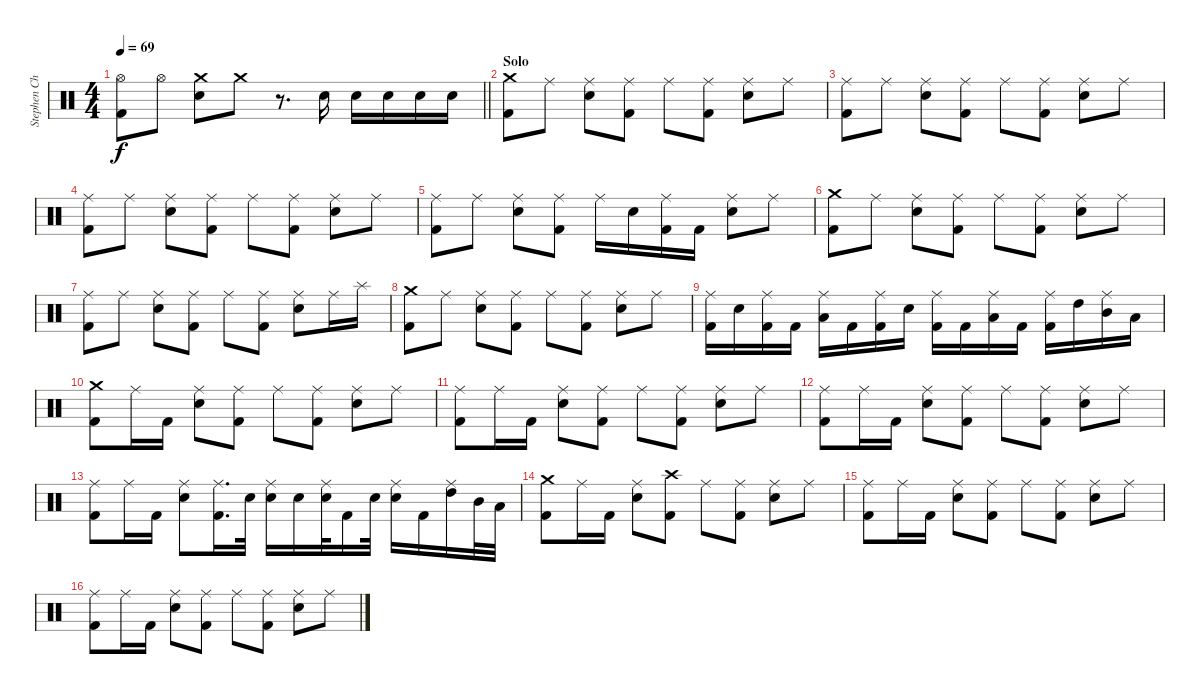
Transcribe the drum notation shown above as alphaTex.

\track ("Stephen Chopek" "Stephen Ch") {instrument percussion}
\staff {score}
\articulation defaults
\ts (4 4)
\tempo 69
\clef neutral
\barLineRight lightlight
\ks c
("Hi-Hat (open)" "Kick (hit) 2").8{dy f} "Hi-Hat (open)".8 ("Crash medium (hit)" "Snare (hit) 2").8 "Crash medium (hit)".8 r.8{d} "Snare (hit) 2".16 "Snare (hit) 2".16 "Snare (hit) 2".16 "Snare (hit) 2".16 "Snare (hit) 2".16 |
\section ("" "Solo")
("Crash medium (hit)" "Kick (hit) 2").8{volume 11} "Ride (middle)".8 ("Ride (middle)" "Snare (hit) 2").8 ("Ride (middle)" "Kick (hit) 2").8 "Ride (middle)".8 ("Ride (middle)" "Kick (hit) 2").8 ("Ride (middle)" "Snare (hit) 2").8 "Ride (middle)".8 |
("Ride (middle)" "Kick (hit) 2").8 "Ride (middle)".8 ("Ride (middle)" "Snare (hit) 2").8 ("Ride (middle)" "Kick (hit) 2").8 "Ride (middle)".8 ("Ride (middle)" "Kick (hit) 2").8 ("Ride (middle)" "Snare (hit) 2").8 "Ride (middle)".8 |
("Ride (middle)" "Kick (hit) 2").8 "Ride (middle)".8 ("Ride (middle)" "Snare (hit) 2").8 ("Ride (middle)" "Kick (hit) 2").8 "Ride (middle)".8 ("Ride (middle)" "Kick (hit) 2").8 ("Ride (middle)" "Snare (hit) 2").8 "Ride (middle)".8 |
("Ride (middle)" "Kick (hit) 2").8 "Ride (middle)".8 ("Ride (middle)" "Snare (hit) 2").8 ("Ride (middle)" "Kick (hit) 2").8 "Ride (middle)".16 "Snare (hit) 2".16 ("Ride (middle)" "Kick (hit) 2").16 "Kick (hit) 2".16 ("Ride (middle)" "Snare (hit) 2").8 "Ride (middle)".8 |
("Crash medium (hit)" "Kick (hit) 2").8 "Ride (middle)".8 ("Ride (middle)" "Snare (hit) 2").8 ("Ride (middle)" "Kick (hit) 2").8 "Ride (middle)".8 ("Ride (middle)" "Kick (hit) 2").8 ("Ride (middle)" "Snare (hit) 2").8 "Ride (middle)".8 |
("Ride (middle)" "Kick (hit) 2").8 "Ride (middle)".8 ("Ride (middle)" "Snare (hit) 2").8 ("Ride (middle)" "Kick (hit) 2").8 "Ride (middle)".8 ("Ride (middle)" "Kick (hit) 2").8 ("Ride (middle)" "Snare (hit) 2").8 "Ride (middle)".16 "Splash (hit)".16 |
("Crash medium (hit)" "Kick (hit) 2").8 "Ride (middle)".8 ("Ride (middle)" "Snare (hit) 2").8 ("Ride (middle)" "Kick (hit) 2").8 "Ride (middle)".8 ("Ride (middle)" "Kick (hit) 2").8 ("Ride (middle)" "Snare (hit) 2").8 "Ride (middle)".8 |
("Ride (middle)" "Kick (hit) 2").16 "Snare (hit) 2".16 ("Ride (middle)" "Kick (hit) 2").16 "Kick (hit) 2".16 ("Ride (middle)" "Low Floor Tom (hit)").16 "Kick (hit) 2".16 ("Ride (middle)" "Kick (hit) 2").16 "Snare (hit) 2".16 ("Ride (middle)" "Kick (hit) 2").16 "Kick (hit) 2".16 ("Ride (middle)" "Low Floor Tom (hit)").16 "Kick (hit) 2".16 ("Ride (middle)" "Kick (hit) 2").16 "High Tom (hit)".16 ("Ride (middle)" "Mid Tom (hit)").16 "Low Tom (hit)".16 |
("Crash medium (hit)" "Kick (hit) 2").8 "Ride (middle)".16 "Kick (hit) 2".16 ("Ride (middle)" "Snare (hit) 2").8 ("Ride (middle)" "Kick (hit) 2").8 "Ride (middle)".8 ("Ride (middle)" "Kick (hit) 2").8 ("Ride (middle)" "Snare (hit) 2").8 "Ride (middle)".8 |
("Ride (middle)" "Kick (hit) 2").8 "Ride (middle)".16 "Kick (hit) 2".16 ("Ride (middle)" "Snare (hit) 2").8 ("Ride (middle)" "Kick (hit) 2").8 "Ride (middle)".8 ("Ride (middle)" "Kick (hit) 2").8 ("Ride (middle)" "Snare (hit) 2").8 "Ride (middle)".8 |
("Ride (middle)" "Kick (hit) 2").8 "Ride (middle)".16 "Kick (hit) 2".16 ("Ride (middle)" "Snare (hit) 2").8 ("Ride (middle)" "Kick (hit) 2").8 "Ride (middle)".8 ("Ride (middle)" "Kick (hit) 2").8 ("Ride (middle)" "Snare (hit) 2").8 "Ride (middle)".8 |
("Ride (middle)" "Kick (hit) 2").8 "Ride (middle)".16 "Kick (hit) 2".16 ("Ride (middle)" "Snare (hit) 2").8 ("Ride (middle)" "Kick (hit) 2").16{d} "Snare (hit) 2".32 ("Ride (middle)" "Snare (hit) 2").16 "Snare (hit) 2".16 ("Ride (middle)" "Snare (hit) 2").32 "Kick (hit) 2".16 "Snare (hit) 2".32 ("Ride (middle)" "Snare (hit) 2").16 "Kick (hit) 2".16 ("Ride (middle)" "High Tom (hit)").16 "Mid Tom (hit)".32 "Low Floor Tom (hit)".32 |
("Crash medium (hit)" "Kick (hit) 2").8 "Ride (middle)".16 "Kick (hit) 2".16 ("Ride (middle)" "Snare (hit) 2").8 ("Crash high (hit)" "Kick (hit) 2").8 "Ride (middle)".8 ("Ride (middle)" "Kick (hit) 2").8 ("Ride (middle)" "Snare (hit) 2").8 "Ride (middle)".8 |
("Ride (middle)" "Kick (hit) 2").8 "Ride (middle)".16 "Kick (hit) 2".16 ("Ride (middle)" "Snare (hit) 2").8 ("Ride (middle)" "Kick (hit) 2").8 "Ride (middle)".8 ("Ride (middle)" "Kick (hit) 2").8 ("Ride (middle)" "Snare (hit) 2").8 "Ride (middle)".8 |
("Ride (middle)" "Kick (hit) 2").8 "Ride (middle)".16 "Kick (hit) 2".16 ("Ride (middle)" "Snare (hit) 2").8 ("Ride (middle)" "Kick (hit) 2").8 "Ride (middle)".8 ("Ride (middle)" "Kick (hit) 2").8 ("Ride (middle)" "Snare (hit) 2").8 "Ride (middle)".8
